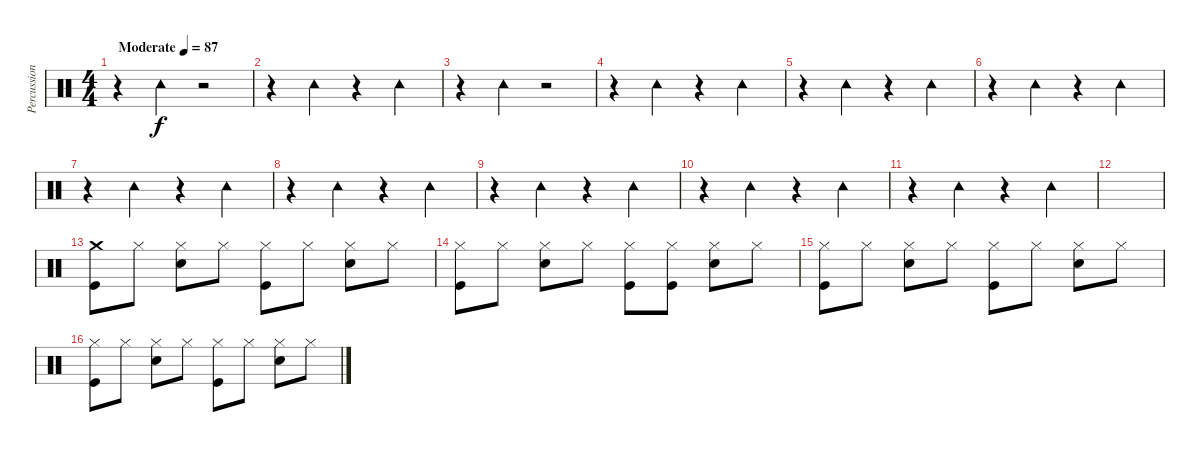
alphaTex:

\track ("Percussion" "Percussion") {instrument percussion}
\staff {score}
\articulation defaults
\ts (4 4)
\tempo (87 "Moderate")
\clef neutral
\ks c
r.4{dy f} "Tambourine (hit)".4 r.2 |
r.4 "Tambourine (hit)".4 r.4 "Tambourine (hit)".4 |
r.4 "Tambourine (hit)".4 r.2 |
r.4 "Tambourine (hit)".4 r.4 "Tambourine (hit)".4 |
r.4 "Tambourine (hit)".4 r.4 "Tambourine (hit)".4 |
r.4 "Tambourine (hit)".4 r.4 "Tambourine (hit)".4 |
r.4 "Tambourine (hit)".4 r.4 "Tambourine (hit)".4 |
r.4 "Tambourine (hit)".4 r.4 "Tambourine (hit)".4 |
r.4 "Tambourine (hit)".4 r.4 "Tambourine (hit)".4 |
r.4 "Tambourine (hit)".4 r.4 "Tambourine (hit)".4 |
r.4 "Tambourine (hit)".4 r.4 "Tambourine (hit)".4 |
|
("Crash medium (hit)" "Kick (hit)").8 "Hi-Hat (closed)".8 ("Hi-Hat (closed)" "Electric Snare (hit)").8 "Hi-Hat (closed)".8 ("Hi-Hat (closed)" "Kick (hit)").8 "Hi-Hat (closed)".8 ("Hi-Hat (closed)" "Electric Snare (hit)").8 "Hi-Hat (closed)".8 |
("Hi-Hat (closed)" "Kick (hit)").8 "Hi-Hat (closed)".8 ("Hi-Hat (closed)" "Electric Snare (hit)").8 "Hi-Hat (closed)".8 ("Hi-Hat (closed)" "Kick (hit)").8 ("Hi-Hat (closed)" "Kick (hit)").8 ("Hi-Hat (closed)" "Electric Snare (hit)").8 "Hi-Hat (closed)".8 |
("Hi-Hat (closed)" "Kick (hit)").8 "Hi-Hat (closed)".8 ("Hi-Hat (closed)" "Electric Snare (hit)").8 "Hi-Hat (closed)".8 ("Hi-Hat (closed)" "Kick (hit)").8 "Hi-Hat (closed)".8 ("Hi-Hat (closed)" "Electric Snare (hit)").8 "Hi-Hat (closed)".8 |
("Hi-Hat (closed)" "Kick (hit)").8 "Hi-Hat (closed)".8 ("Hi-Hat (closed)" "Electric Snare (hit)").8 "Hi-Hat (closed)".8 ("Hi-Hat (closed)" "Kick (hit)").8 "Hi-Hat (closed)".8 ("Hi-Hat (closed)" "Electric Snare (hit)").8 "Hi-Hat (closed)".8
